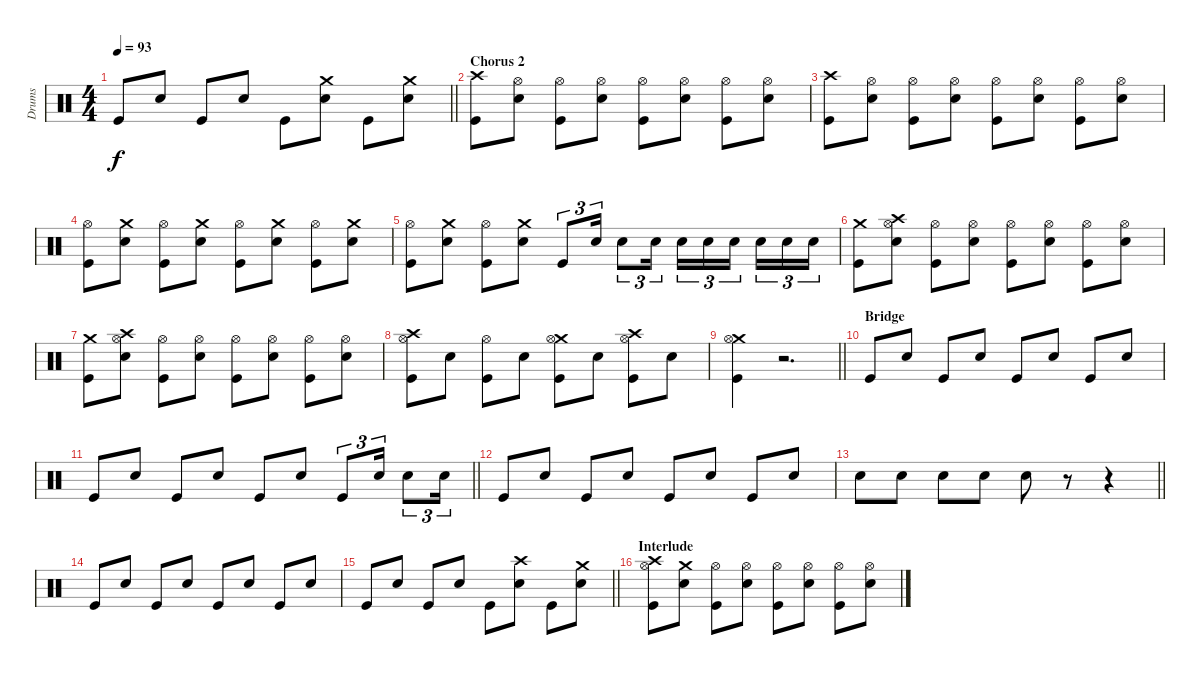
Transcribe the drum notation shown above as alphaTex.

\track ("Drums" "Drums") {instrument percussion}
\staff {score}
\articulation defaults
\ts (4 4)
\tempo 93
\clef neutral
\barLineRight lightlight
\ks c "Kick (hit)".8{dy f} "Snare (hit) 2".8 "Kick (hit)".8 "Snare (hit) 2".8 "Kick (hit)".8
("Crash medium (hit)" "Snare (hit) 2").8 "Kick (hit)".8 ("Crash medium (hit)" "Snare (hit) 2").8 |
\section ("" "Chorus 2")
("Crash high (hit)" "Kick (hit)").8 ("Hi-Hat (open)" "Snare (hit) 2").8 ("Hi-Hat (open)" "Kick (hit)").8 ("Hi-Hat (open)" "Snare (hit) 2").8 ("Hi-Hat (open)" "Kick (hit)").8 ("Hi-Hat (open)" "Snare (hit) 2").8 ("Hi-Hat (open)" "Kick (hit)").8 ("Hi-Hat (open)" "Snare (hit) 2").8 |
("Crash high (hit)" "Kick (hit)").8 ("Hi-Hat (open)" "Snare (hit) 2").8 ("Hi-Hat (open)" "Kick (hit)").8 ("Hi-Hat (open)" "Snare (hit) 2").8 ("Hi-Hat (open)" "Kick (hit)").8 ("Hi-Hat (open)" "Snare (hit) 2").8 ("Hi-Hat (open)" "Kick (hit)").8 ("Hi-Hat (open)" "Snare (hit) 2").8 |
("Hi-Hat (open)" "Kick (hit)").8 ("Crash medium (hit)" "Snare (hit) 2").8 ("Hi-Hat (open)" "Kick (hit)").8 ("Crash medium (hit)" "Snare (hit) 2").8 ("Hi-Hat (open)" "Kick (hit)").8 ("Crash medium (hit)" "Snare (hit) 2").8 ("Hi-Hat (open)" "Kick (hit)").8 ("Crash medium (hit)" "Snare (hit) 2").8 |
("Hi-Hat (open)" "Kick (hit)").8 ("Crash medium (hit)" "Snare (hit) 2").8 ("Hi-Hat (open)" "Kick (hit)").8 ("Crash medium (hit)" "Snare (hit) 2").8 "Kick (hit)".8{tu (3 2)} "Snare (hit) 2".16{tu (3 2)} "Snare (hit) 2".8{tu (3 2)} "Snare (hit) 2".16{tu (3 2)} "Snare (hit) 2".16{tu (3 2)} "Snare (hit) 2".16{tu (3 2)} "Snare (hit) 2".16{tu (3 2) beam splitsecondary} "Snare (hit) 2".16{tu (3 2)} "Snare (hit) 2".16{tu (3 2)} "Snare (hit) 2".16{tu (3 2)} |
("Crash medium (hit)" "Kick (hit)").8 ("Crash high (hit)" "Hi-Hat (open)" "Snare (hit) 2").8 ("Hi-Hat (open)" "Kick (hit)").8 ("Hi-Hat (open)" "Snare (hit) 2").8 ("Hi-Hat (open)" "Kick (hit)").8 ("Hi-Hat (open)" "Snare (hit) 2").8 ("Hi-Hat (open)" "Kick (hit)").8 ("Hi-Hat (open)" "Snare (hit) 2").8 |
("Crash medium (hit)" "Kick (hit)").8 ("Crash high (hit)" "Hi-Hat (open)" "Snare (hit) 2").8 ("Hi-Hat (open)" "Kick (hit)").8 ("Hi-Hat (open)" "Snare (hit) 2").8 ("Hi-Hat (open)" "Kick (hit)").8 ("Hi-Hat (open)" "Snare (hit) 2").8 ("Hi-Hat (open)" "Kick (hit)").8 ("Hi-Hat (open)" "Snare (hit) 2").8 |
("Crash high (hit)" "Hi-Hat (open)" "Kick (hit)").8 "Snare (hit) 2".8 ("Hi-Hat (open)" "Kick (hit)").8 "Snare (hit) 2".8 ("Crash medium (hit)" "Hi-Hat (open)" "Kick (hit)").8 "Snare (hit) 2".8 ("Crash high (hit)" "Hi-Hat (open)" "Kick (hit)").8 "Snare (hit) 2".8 |
\barLineRight lightlight
("Crash medium (hit)" "Hi-Hat (open)" "Kick (hit)").4 r.2{d} |
\section ("" "Bridge")
"Kick (hit)".8 "Snare (hit) 2".8 "Kick (hit)".8 "Snare (hit) 2".8 "Kick (hit)".8 "Snare (hit) 2".8 "Kick (hit)".8 "Snare (hit) 2".8 |
\barLineRight lightlight "Kick (hit)".8 "Snare (hit) 2".8 "Kick (hit)".8 "Snare (hit) 2".8 "Kick (hit)".8 "Snare (hit) 2".8 "Kick (hit)".8{tu (3 2)} "Snare (hit) 2".16{tu (3 2)} "Snare (hit) 2".8{tu (3 2)} "Snare (hit) 2".16{tu (3 2)}
|
"Kick (hit)".8 "Snare (hit) 2".8 "Kick (hit)".8 "Snare (hit) 2".8 "Kick (hit)".8 "Snare (hit) 2".8 "Kick (hit)".8 "Snare (hit) 2".8 |
\barLineRight lightlight "Snare (hit) 2".8 "Snare (hit) 2".8 "Snare (hit) 2".8 "Snare (hit) 2".8 "Snare (hit) 2".8
r.8 r.4 |
"Kick (hit)".8 "Snare (hit) 2".8 "Kick (hit)".8 "Snare (hit) 2".8 "Kick (hit)".8 "Snare (hit) 2".8 "Kick (hit)".8 "Snare (hit) 2".8 |
\barLineRight lightlight "Kick (hit)".8 "Snare (hit) 2".8 "Kick (hit)".8 "Snare (hit) 2".8 "Kick (hit)".8
("Crash high (hit)" "Snare (hit) 2").8 "Kick (hit)".8 ("Crash medium (hit)" "Snare (hit) 2").8 |
\section ("" "Interlude")
("Crash high (hit)" "Hi-Hat (open)" "Kick (hit)").8 ("Crash medium (hit)" "Snare (hit) 2").8 ("Hi-Hat (open)" "Kick (hit)").8 ("Hi-Hat (open)" "Snare (hit) 2").8 ("Hi-Hat (open)" "Kick (hit)").8 ("Hi-Hat (open)" "Snare (hit) 2").8 ("Hi-Hat (open)" "Kick (hit)").8 ("Hi-Hat (open)" "Snare (hit) 2").8
